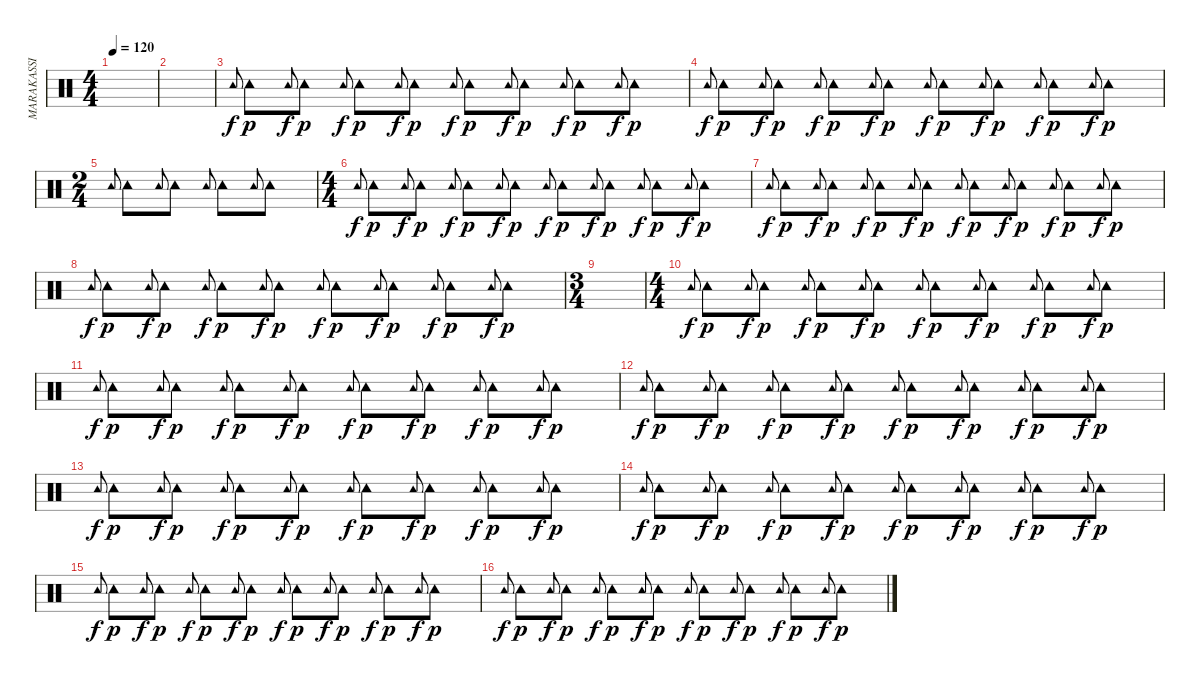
\track ("MARAKASSI" "MARAKASSI") {instrument percussion}
\staff {score}
\articulation defaults
\ts (4 4)
\tempo 120
\clef neutral
\ks c
|
|
"Tambourine (hit)".8{gr onbeat dy f} "Tambourine (hit)".8{dy p} "Tambourine (hit)".8{gr onbeat dy f} "Tambourine (hit)".8{dy p} "Tambourine (hit)".8{gr onbeat dy f} "Tambourine (hit)".8{dy p} "Tambourine (hit)".8{gr onbeat dy f} "Tambourine (hit)".8{dy p} "Tambourine (hit)".8{gr onbeat dy f} "Tambourine (hit)".8{dy p} "Tambourine (hit)".8{gr onbeat dy f} "Tambourine (hit)".8{dy p} "Tambourine (hit)".8{gr onbeat dy f} "Tambourine (hit)".8{dy p} "Tambourine (hit)".8{gr onbeat dy f} "Tambourine (hit)".8{dy p} |
"Tambourine (hit)".8{gr onbeat dy f} "Tambourine (hit)".8{dy p} "Tambourine (hit)".8{gr onbeat dy f} "Tambourine (hit)".8{dy p} "Tambourine (hit)".8{gr onbeat dy f} "Tambourine (hit)".8{dy p} "Tambourine (hit)".8{gr onbeat dy f} "Tambourine (hit)".8{dy p} "Tambourine (hit)".8{gr onbeat dy f} "Tambourine (hit)".8{dy p} "Tambourine (hit)".8{gr onbeat dy f} "Tambourine (hit)".8{dy p} "Tambourine (hit)".8{gr onbeat dy f} "Tambourine (hit)".8{dy p} "Tambourine (hit)".8{gr onbeat dy f} "Tambourine (hit)".8{dy p} |
\ts (2 4)
"Tambourine (hit)".8{gr onbeat} "Tambourine (hit)".8 "Tambourine (hit)".8{gr onbeat} "Tambourine (hit)".8 "Tambourine (hit)".8{gr onbeat} "Tambourine (hit)".8 "Tambourine (hit)".8{gr onbeat} "Tambourine (hit)".8 |
\ts (4 4)
"Tambourine (hit)".8{gr onbeat dy f} "Tambourine (hit)".8{dy p} "Tambourine (hit)".8{gr onbeat dy f} "Tambourine (hit)".8{dy p} "Tambourine (hit)".8{gr onbeat dy f} "Tambourine (hit)".8{dy p} "Tambourine (hit)".8{gr onbeat dy f} "Tambourine (hit)".8{dy p} "Tambourine (hit)".8{gr onbeat dy f} "Tambourine (hit)".8{dy p} "Tambourine (hit)".8{gr onbeat dy f} "Tambourine (hit)".8{dy p} "Tambourine (hit)".8{gr onbeat dy f} "Tambourine (hit)".8{dy p} "Tambourine (hit)".8{gr onbeat dy f} "Tambourine (hit)".8{dy p} |
"Tambourine (hit)".8{gr onbeat dy f} "Tambourine (hit)".8{dy p} "Tambourine (hit)".8{gr onbeat dy f} "Tambourine (hit)".8{dy p} "Tambourine (hit)".8{gr onbeat dy f} "Tambourine (hit)".8{dy p} "Tambourine (hit)".8{gr onbeat dy f} "Tambourine (hit)".8{dy p} "Tambourine (hit)".8{gr onbeat dy f} "Tambourine (hit)".8{dy p} "Tambourine (hit)".8{gr onbeat dy f} "Tambourine (hit)".8{dy p} "Tambourine (hit)".8{gr onbeat dy f} "Tambourine (hit)".8{dy p} "Tambourine (hit)".8{gr onbeat dy f} "Tambourine (hit)".8{dy p} |
"Tambourine (hit)".8{gr onbeat dy f} "Tambourine (hit)".8{dy p} "Tambourine (hit)".8{gr onbeat dy f} "Tambourine (hit)".8{dy p} "Tambourine (hit)".8{gr onbeat dy f} "Tambourine (hit)".8{dy p} "Tambourine (hit)".8{gr onbeat dy f} "Tambourine (hit)".8{dy p} "Tambourine (hit)".8{gr onbeat dy f} "Tambourine (hit)".8{dy p} "Tambourine (hit)".8{gr onbeat dy f} "Tambourine (hit)".8{dy p} "Tambourine (hit)".8{gr onbeat dy f} "Tambourine (hit)".8{dy p} "Tambourine (hit)".8{gr onbeat dy f} "Tambourine (hit)".8{dy p} |
\ts (3 4)
|
\ts (4 4)
"Tambourine (hit)".8{gr onbeat dy f} "Tambourine (hit)".8{dy p} "Tambourine (hit)".8{gr onbeat dy f} "Tambourine (hit)".8{dy p} "Tambourine (hit)".8{gr onbeat dy f} "Tambourine (hit)".8{dy p} "Tambourine (hit)".8{gr onbeat dy f} "Tambourine (hit)".8{dy p} "Tambourine (hit)".8{gr onbeat dy f} "Tambourine (hit)".8{dy p} "Tambourine (hit)".8{gr onbeat dy f} "Tambourine (hit)".8{dy p} "Tambourine (hit)".8{gr onbeat dy f} "Tambourine (hit)".8{dy p} "Tambourine (hit)".8{gr onbeat dy f} "Tambourine (hit)".8{dy p} |
"Tambourine (hit)".8{gr onbeat dy f} "Tambourine (hit)".8{dy p} "Tambourine (hit)".8{gr onbeat dy f} "Tambourine (hit)".8{dy p} "Tambourine (hit)".8{gr onbeat dy f} "Tambourine (hit)".8{dy p} "Tambourine (hit)".8{gr onbeat dy f} "Tambourine (hit)".8{dy p} "Tambourine (hit)".8{gr onbeat dy f} "Tambourine (hit)".8{dy p} "Tambourine (hit)".8{gr onbeat dy f} "Tambourine (hit)".8{dy p} "Tambourine (hit)".8{gr onbeat dy f} "Tambourine (hit)".8{dy p} "Tambourine (hit)".8{gr onbeat dy f} "Tambourine (hit)".8{dy p} |
"Tambourine (hit)".8{gr onbeat dy f} "Tambourine (hit)".8{dy p} "Tambourine (hit)".8{gr onbeat dy f} "Tambourine (hit)".8{dy p} "Tambourine (hit)".8{gr onbeat dy f} "Tambourine (hit)".8{dy p} "Tambourine (hit)".8{gr onbeat dy f} "Tambourine (hit)".8{dy p} "Tambourine (hit)".8{gr onbeat dy f} "Tambourine (hit)".8{dy p} "Tambourine (hit)".8{gr onbeat dy f} "Tambourine (hit)".8{dy p} "Tambourine (hit)".8{gr onbeat dy f} "Tambourine (hit)".8{dy p} "Tambourine (hit)".8{gr onbeat dy f} "Tambourine (hit)".8{dy p} |
"Tambourine (hit)".8{gr onbeat dy f} "Tambourine (hit)".8{dy p} "Tambourine (hit)".8{gr onbeat dy f} "Tambourine (hit)".8{dy p} "Tambourine (hit)".8{gr onbeat dy f} "Tambourine (hit)".8{dy p} "Tambourine (hit)".8{gr onbeat dy f} "Tambourine (hit)".8{dy p} "Tambourine (hit)".8{gr onbeat dy f} "Tambourine (hit)".8{dy p} "Tambourine (hit)".8{gr onbeat dy f} "Tambourine (hit)".8{dy p} "Tambourine (hit)".8{gr onbeat dy f} "Tambourine (hit)".8{dy p} "Tambourine (hit)".8{gr onbeat dy f} "Tambourine (hit)".8{dy p} |
"Tambourine (hit)".8{gr onbeat dy f} "Tambourine (hit)".8{dy p} "Tambourine (hit)".8{gr onbeat dy f} "Tambourine (hit)".8{dy p} "Tambourine (hit)".8{gr onbeat dy f} "Tambourine (hit)".8{dy p} "Tambourine (hit)".8{gr onbeat dy f} "Tambourine (hit)".8{dy p} "Tambourine (hit)".8{gr onbeat dy f} "Tambourine (hit)".8{dy p} "Tambourine (hit)".8{gr onbeat dy f} "Tambourine (hit)".8{dy p} "Tambourine (hit)".8{gr onbeat dy f} "Tambourine (hit)".8{dy p} "Tambourine (hit)".8{gr onbeat dy f} "Tambourine (hit)".8{dy p} |
"Tambourine (hit)".8{gr onbeat dy f} "Tambourine (hit)".8{dy p} "Tambourine (hit)".8{gr onbeat dy f} "Tambourine (hit)".8{dy p} "Tambourine (hit)".8{gr onbeat dy f} "Tambourine (hit)".8{dy p} "Tambourine (hit)".8{gr onbeat dy f} "Tambourine (hit)".8{dy p} "Tambourine (hit)".8{gr onbeat dy f} "Tambourine (hit)".8{dy p} "Tambourine (hit)".8{gr onbeat dy f} "Tambourine (hit)".8{dy p} "Tambourine (hit)".8{gr onbeat dy f} "Tambourine (hit)".8{dy p} "Tambourine (hit)".8{gr onbeat dy f} "Tambourine (hit)".8{dy p} |
"Tambourine (hit)".8{gr onbeat dy f} "Tambourine (hit)".8{dy p} "Tambourine (hit)".8{gr onbeat dy f} "Tambourine (hit)".8{dy p} "Tambourine (hit)".8{gr onbeat dy f} "Tambourine (hit)".8{dy p} "Tambourine (hit)".8{gr onbeat dy f} "Tambourine (hit)".8{dy p} "Tambourine (hit)".8{gr onbeat dy f} "Tambourine (hit)".8{dy p} "Tambourine (hit)".8{gr onbeat dy f} "Tambourine (hit)".8{dy p} "Tambourine (hit)".8{gr onbeat dy f} "Tambourine (hit)".8{dy p} "Tambourine (hit)".8{gr onbeat dy f} "Tambourine (hit)".8{dy p}
